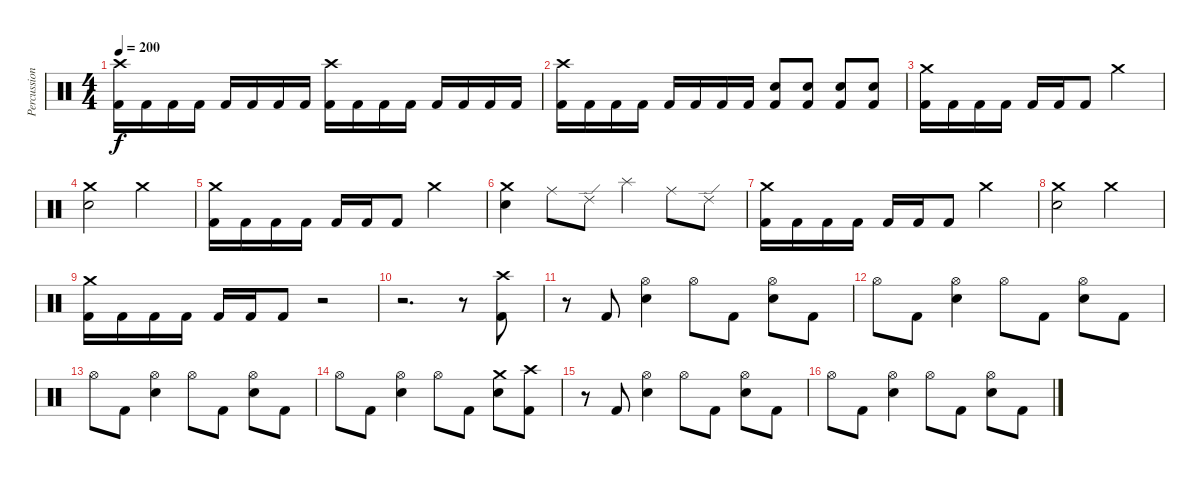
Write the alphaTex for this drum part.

\track ("Percussion" "Percussion") {instrument percussion}
\staff {score}
\articulation defaults
\ts (4 4)
\tempo 200
\clef neutral
\ks c
("Crash high (hit)" "Kick (hit) 2").16{dy f} "Kick (hit) 2".16 "Kick (hit) 2".16 "Kick (hit) 2".16 "Kick (hit) 2".16 "Kick (hit) 2".16 "Kick (hit) 2".16 "Kick (hit) 2".16 ("Crash high (hit)" "Kick (hit) 2").16 "Kick (hit) 2".16 "Kick (hit) 2".16 "Kick (hit) 2".16 "Kick (hit) 2".16 "Kick (hit) 2".16 "Kick (hit) 2".16 "Kick (hit) 2".16 |
("Crash high (hit)" "Kick (hit) 2").16 "Kick (hit) 2".16 "Kick (hit) 2".16 "Kick (hit) 2".16 "Kick (hit) 2".16 "Kick (hit) 2".16 "Kick (hit) 2".16 "Kick (hit) 2".16 ("Snare (hit) 2" "Kick (hit) 2").8 ("Snare (hit) 2" "Kick (hit) 2").8 ("Snare (hit) 2" "Kick (hit) 2").8 ("Snare (hit) 2" "Kick (hit) 2").8 |
("Crash medium (hit)" "Kick (hit) 2").16 "Kick (hit) 2".16 "Kick (hit) 2".16 "Kick (hit) 2".16 "Kick (hit) 2".16 "Kick (hit) 2".16 "Kick (hit) 2".8 "Crash medium (hit)".2 |
("Crash medium (hit)" "Snare (hit) 2").2 "Crash medium (hit)".2 |
("Crash medium (hit)" "Kick (hit) 2").16 "Kick (hit) 2".16 "Kick (hit) 2".16 "Kick (hit) 2".16 "Kick (hit) 2".16 "Kick (hit) 2".16 "Kick (hit) 2".8 "Crash medium (hit)".2 |
("Crash medium (hit)" "Snare (hit) 2").4 "Ride (middle)".8 "Ride (edge) 2".8 "Splash (hit)".4 "Ride (middle)".8 "Ride (edge) 2".8 |
("Crash medium (hit)" "Kick (hit) 2").16 "Kick (hit) 2".16 "Kick (hit) 2".16 "Kick (hit) 2".16 "Kick (hit) 2".16 "Kick (hit) 2".16 "Kick (hit) 2".8 "Crash medium (hit)".2 |
("Crash medium (hit)" "Snare (hit) 2").2 "Crash medium (hit)".2 |
("Crash medium (hit)" "Kick (hit) 2").16 "Kick (hit) 2".16 "Kick (hit) 2".16 "Kick (hit) 2".16 "Kick (hit) 2".16 "Kick (hit) 2".16 "Kick (hit) 2".8 r.2 |
r.2{d} r.8 ("Crash high (hit)" "Kick (hit) 2").8 |
r.8 "Kick (hit) 2".8 ("Hi-Hat (open)" "Snare (hit) 2").4 "Hi-Hat (open)".8 "Kick (hit) 2".8 ("Hi-Hat (open)" "Snare (hit) 2").8 "Kick (hit) 2".8 |
"Hi-Hat (open)".8 "Kick (hit) 2".8 ("Hi-Hat (open)" "Snare (hit) 2").4 "Hi-Hat (open)".8 "Kick (hit) 2".8 ("Hi-Hat (open)" "Snare (hit) 2").8 "Kick (hit) 2".8 |
"Hi-Hat (open)".8 "Kick (hit) 2".8 ("Hi-Hat (open)" "Snare (hit) 2").4 "Hi-Hat (open)".8 "Kick (hit) 2".8 ("Hi-Hat (open)" "Snare (hit) 2").8 "Kick (hit) 2".8 |
"Hi-Hat (open)".8 "Kick (hit) 2".8 ("Hi-Hat (open)" "Snare (hit) 2").4 "Hi-Hat (open)".8 "Kick (hit) 2".8 ("Crash medium (hit)" "Snare (hit) 2").8 ("Crash high (hit)" "Kick (hit) 2").8 |
r.8 "Kick (hit) 2".8 ("Hi-Hat (open)" "Snare (hit) 2").4 "Hi-Hat (open)".8 "Kick (hit) 2".8 ("Hi-Hat (open)" "Snare (hit) 2").8 "Kick (hit) 2".8 |
"Hi-Hat (open)".8 "Kick (hit) 2".8 ("Hi-Hat (open)" "Snare (hit) 2").4 "Hi-Hat (open)".8 "Kick (hit) 2".8 ("Hi-Hat (open)" "Snare (hit) 2").8 "Kick (hit) 2".8
